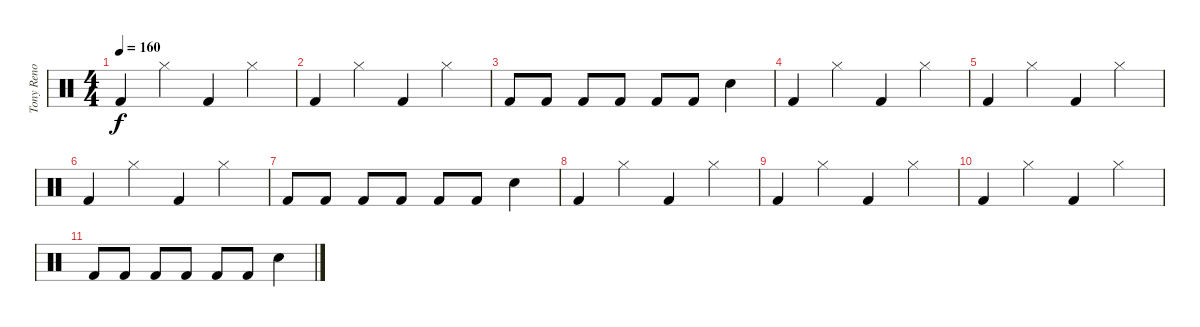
\track ("Tony Reno" "Tony Reno") {instrument percussion}
\staff {score}
\articulation defaults
\ts (4 4)
\tempo 160
\clef neutral
\ks c "Kick (hit) 2".4{dy f} "Hi-Hat (closed)".4 "Kick (hit) 2".4 "Hi-Hat (closed)".4
|
"Kick (hit) 2".4 "Hi-Hat (closed)".4 "Kick (hit) 2".4 "Hi-Hat (closed)".4 |
"Kick (hit) 2".8 "Kick (hit) 2".8 "Kick (hit) 2".8 "Kick (hit) 2".8 "Kick (hit) 2".8 "Kick (hit) 2".8 "Snare (hit) 2".4 |
"Kick (hit) 2".4 "Hi-Hat (closed)".4 "Kick (hit) 2".4 "Hi-Hat (closed)".4 |
"Kick (hit) 2".4 "Hi-Hat (closed)".4 "Kick (hit) 2".4 "Hi-Hat (closed)".4 |
"Kick (hit) 2".4 "Hi-Hat (closed)".4 "Kick (hit) 2".4 "Hi-Hat (closed)".4 |
"Kick (hit) 2".8 "Kick (hit) 2".8 "Kick (hit) 2".8 "Kick (hit) 2".8 "Kick (hit) 2".8 "Kick (hit) 2".8 "Snare (hit) 2".4 |
"Kick (hit) 2".4 "Hi-Hat (closed)".4 "Kick (hit) 2".4 "Hi-Hat (closed)".4 |
"Kick (hit) 2".4 "Hi-Hat (closed)".4 "Kick (hit) 2".4 "Hi-Hat (closed)".4 |
"Kick (hit) 2".4 "Hi-Hat (closed)".4 "Kick (hit) 2".4 "Hi-Hat (closed)".4 |
"Kick (hit) 2".8 "Kick (hit) 2".8 "Kick (hit) 2".8 "Kick (hit) 2".8 "Kick (hit) 2".8 "Kick (hit) 2".8 "Snare (hit) 2".4
